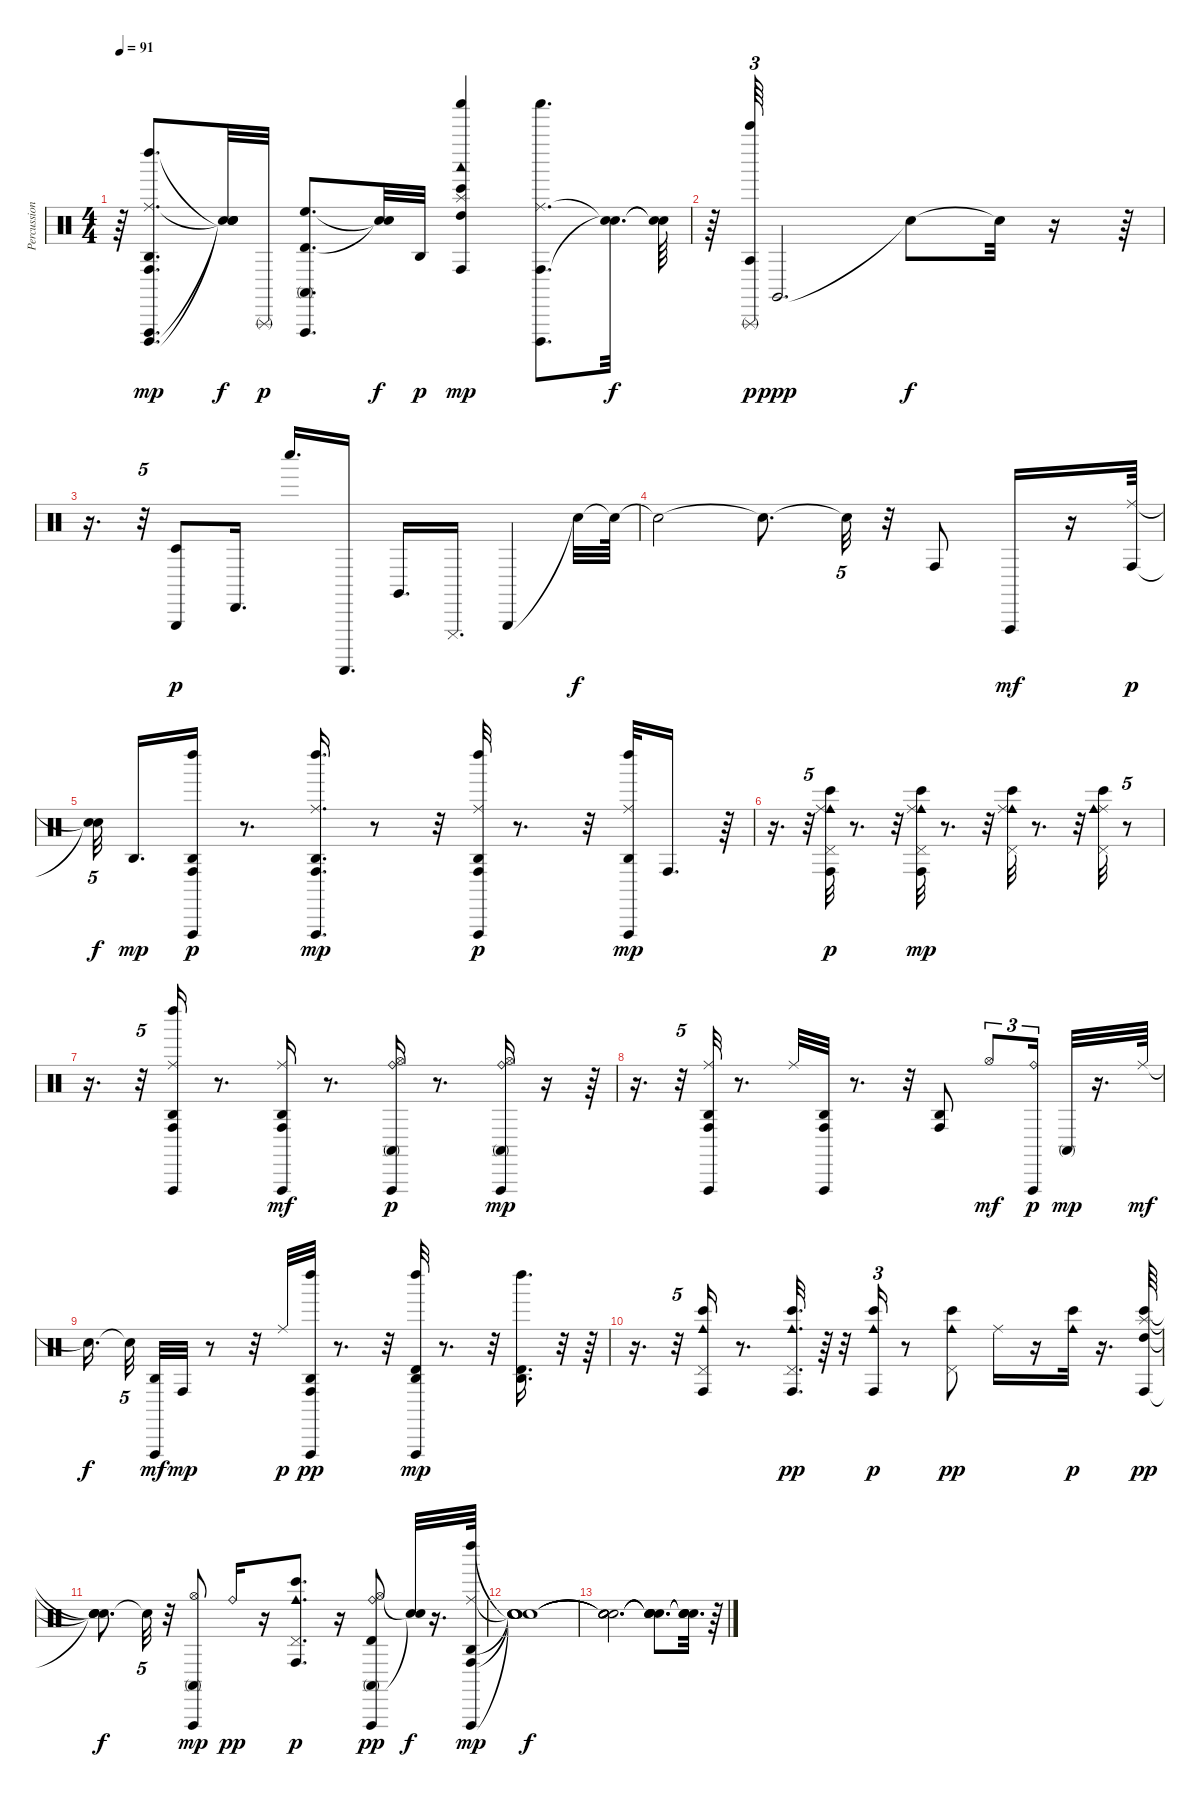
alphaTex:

\track ("Percussion Organ" "Percussion") {instrument percussion}
\staff {score}
\articulation defaults
\ts (4 4)
\tempo 91
\clef neutral
\ks c
r.64{dy f} ("Cuica (open)" "Ride (middle)" "Vibraslap (hit)" "Left Maraca (hit)" "Conga high (hit)" "Agogo high (hit)").8{d dy mp} ("Snare (hit)"{t} "Snare (hit)"{t} "Snare (hit)"{t} "Snare (hit)"{t}).32{dy f} "Triangle (rnute)".32{dy p} ("Timbale high (hit)" "High Floor Tom (hit)" "Conga high (mute)" "Vibraslap (hit)").8{d} ("Snare (hit)"{t} "Snare (hit)"{t}).32{dy f} "Agogo high (hit)".32{dy p} ("High Tom (hit)" "Woodblock low (hit)" "Shaker (hit)" "Bongo High (hit)" "Conga high (hit)" "Splash (hit)").4{dy mp} ("Ride (middle)" "Conga high (hit)" "Shaker (hit)" "Cuica (open)").8{d} ("Snare (hit)"{t} "Snare (hit)"{t}).32{d dy f} ("Snare (hit)"{t} "Snare (hit)"{t}).64 |
r.64 ("Bell Tree (hit)" "Triangle (rnute)" "Agogo tow (hit)").64{tu (3 2) dy p} "Claves (hit)".2{d dy ppp} "Snare (hit)"{t}.8{dy f} "Snare (hit)"{t}.32 r.16 r.64 |
r.16{d} r.32{tu (5 4)} ("Timbale low (hit)" "Triangle (hit)").8{dy p} "Cabasa (hit)".16{d} "Whistle low (hit)".16{d} "Guiro (scrap-return)".16{d} "Claves (hit)".16{d} "Cuica (mute)".16{d} "Triangle (hit)".4 "Snare (hit)"{t}.32{dy f} "Snare (hit)"{t}.64 |
"Snare (hit)"{t}.2 "Snare (hit)"{t}.8{d} "Snare (hit)"{t}.32{tu (5 4)} r.32 "Conga high (hit)".8{volume 5} "Vibraslap (hit)".16{dy mf} r.16 ("Ride (middle)" "Conga high (hit)").64{dy p volume 16} |
("Snare (hit)"{t} "Snare (hit)"{t}).32{tu (5 4) dy f} "Agogo high (hit)".16{d dy mp} ("Vibraslap (hit)" "Conga high (hit)" "Agogo high (hit)" "Left Maraca (hit)").16{dy p} r.8{d} ("Left Maraca (hit)" "Agogo high (hit)" "Ride (middle)" "Vibraslap (hit)" "Conga high (hit)").16{d dy mp} r.8 r.32 ("Left Maraca (hit)" "Agogo high (hit)" "Conga high (hit)" "Ride (middle)" "Vibraslap (hit)").32{dy p} r.8{d} r.32 ("Left Maraca (hit)" "Ride (middle)" "Vibraslap (hit)" "Agogo high (hit)").32{dy mp} "Conga high (hit)".16{d} r.64 |
r.16{d} r.32{tu (5 4)} ("Conga high (hit)" "Bongo High (hit)" "Pedal Hi-Hat (hit)" "Cowbell medium (hit)" "Ride (middle)").32{dy p} r.8{d} r.32 ("Cowbell medium (hit)" "Bongo High (hit)" "Conga high (hit)" "Ride (middle)" "Pedal Hi-Hat (hit)").32{dy mp} r.8{d} r.32 ("Pedal Hi-Hat (hit)" "Cowbell medium (hit)" "Ride (middle)" "Bongo High (hit)").32 r.8{d} r.32 ("Pedal Hi-Hat (hit)" "Ride (middle)" "Cowbell medium (hit)" "Bongo High (hit)").32 r.8{tu (5 4)} |
r.16{d} r.32{tu (5 4)} ("Vibraslap (hit)" "Ride (middle)" "Agogo high (hit)" "Left Maraca (hit)" "Conga high (hit)").16 r.8{d} ("Vibraslap (hit)" "Ride (middle)" "Conga high (hit)" "Agogo high (hit)").16{dy mf} r.8{d} ("Vibraslap (hit)" "Hi-Hat (open)" "Conga high (mute)" "Ride (bell)").16{dy p} r.8{d} ("Hi-Hat (open)" "Conga high (mute)" "Ride (bell)" "Vibraslap (hit)").16{dy mp} r.16 r.64 |
r.16{d} r.32{tu (5 4)} ("Ride (middle)" "Vibraslap (hit)" "Agogo high (hit)" "Conga high (hit)").32 r.8{d} "Ride (middle)".32 ("Agogo high (hit)" "Conga high (hit)" "Vibraslap (hit)").32 r.8{d} r.32 ("Agogo high (hit)" "Conga high (hit)").8 "Hi-Hat (open)".8{tu (3 2) dy mf} ("Ride (bell)" "Vibraslap (hit)").16{tu (3 2) dy p} "Conga high (mute)".32{dy mp} r.16{d} "Ride (middle)".64{dy mf} |
"Snare (hit)"{t}.16{d dy f} "Snare (hit)"{t}.32{tu (5 4)} ("Vibraslap (hit)" "Agogo high (hit)").32{dy mf} "Conga high (hit)".32{dy mp} r.8 r.32 "Ride (middle)".32{dy p} ("Vibraslap (hit)" "Agogo high (hit)" "Conga high (hit)" "Left Maraca (hit)").32{dy pp} r.8{d} r.32 ("Vibraslap (hit)" "Left Maraca (hit)" "Agogo high (hit)" "Timbale high (hit)").32{dy mp} r.8{d} r.32 ("Left Maraca (hit)" "Timbale high (hit)" "Agogo high (hit)").16{d} r.32 r.64 |
r.16{d} r.32{tu (5 4)} ("Pedal Hi-Hat (hit)" "Cowbell medium (hit)" "Conga high (hit)" "Bongo High (hit)").16 r.8{d} ("Cowbell medium (hit)" "Bongo High (hit)" "Conga high (hit)" "Pedal Hi-Hat (hit)").32{d dy pp} r.64 r.32 ("Cowbell medium (hit)" "Bongo High (hit)" "Conga high (hit)").16{tu (3 2) dy p} r.8 ("Cowbell medium (hit)" "Bongo High (hit)" "Pedal Hi-Hat (hit)").8{dy pp} "Ride (middle)".16 r.16 ("Cowbell medium (hit)" "Bongo High (hit)").32{dy p} r.16{d} ("High Tom (hit)" "Conga high (hit)" "Splash (hit)" "Bongo High (hit)").64{dy pp} |
("Snare (hit)"{t} "Snare (hit)"{t} "Snare (hit)"{t} "Snare (hit)"{t}).8{d dy f} "Snare (hit)"{t}.32{tu (5 4)} r.32 ("Hi-Hat (open)" "Vibraslap (hit)" "Conga high (mute)").8{dy mp} "Ride (bell)".16{dy pp} r.16 ("Pedal Hi-Hat (hit)" "Bongo High (hit)" "Conga high (hit)" "Cowbell medium (hit)").8{d dy p} r.16 ("Conga high (mute)" "Hi-Hat (open)" "Ride (bell)" "Vibraslap (hit)" "Timbale high (hit)").8{dy pp} ("Snare (hit)"{t} "Snare (hit)"{t}).32{dy f} r.16{d} ("Left Maraca (hit)" "Agogo high (hit)" "Vibraslap (hit)" "Ride (middle)" "Conga high (hit)").64{dy mp} |
("Snare (hit)"{t} "Snare (hit)"{t} "Snare (hit)"{t} "Snare (hit)"{t} "Snare (hit)"{t}).1{dy f} |
("Snare (hit)"{t} "Snare (hit)"{t} "Snare (hit)"{t} "Snare (hit)"{t} "Snare (hit)"{t}).2{d} ("Snare (hit)"{t} "Snare (hit)"{t} "Snare (hit)"{t} "Snare (hit)"{t} "Snare (hit)"{t}).8{d} ("Snare (hit)"{t} "Snare (hit)"{t} "Snare (hit)"{t} "Snare (hit)"{t}).32{d} r.64
